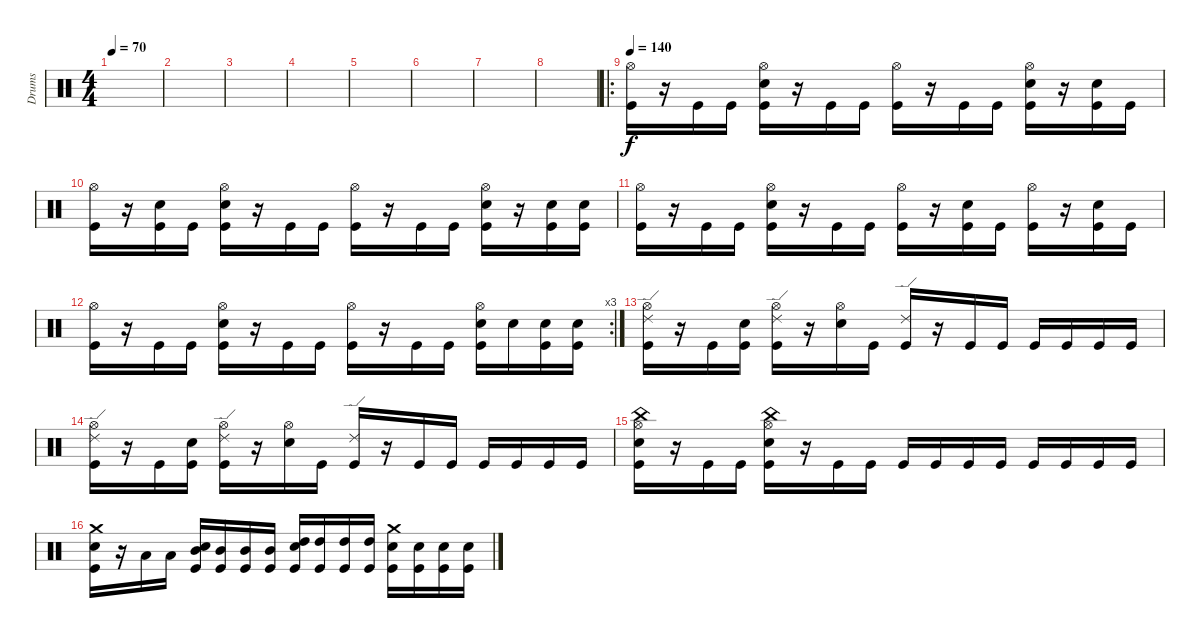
\track ("Drums" "Drums") {instrument percussion}
\staff {score}
\articulation defaults
\ts (4 4)
\tempo 70
\clef neutral
\ks c
|
|
|
|
|
|
|
|
\ro
\tempo 140
("Hi-Hat (open)" "Kick (hit)").16 r.16 "Kick (hit)".16 "Kick (hit)".16 ("Hi-Hat (open)" "Electric Snare (hit)" "Kick (hit)").16 r.16 "Kick (hit)".16 "Kick (hit)".16 ("Hi-Hat (open)" "Kick (hit)").16 r.16 "Kick (hit)".16 "Kick (hit)".16 ("Hi-Hat (open)" "Electric Snare (hit)" "Kick (hit)").16 r.16 ("Electric Snare (hit)" "Kick (hit)").16 "Kick (hit)".16 |
("Hi-Hat (open)" "Kick (hit)").16 r.16 ("Electric Snare (hit)" "Kick (hit)").16 "Kick (hit)".16 ("Hi-Hat (open)" "Electric Snare (hit)" "Kick (hit)").16 r.16 "Kick (hit)".16 "Kick (hit)".16 ("Hi-Hat (open)" "Kick (hit)").16 r.16 "Kick (hit)".16 "Kick (hit)".16 ("Hi-Hat (open)" "Electric Snare (hit)" "Kick (hit)").16 r.16 ("Electric Snare (hit)" "Kick (hit)").16 ("Electric Snare (hit)" "Kick (hit)").16 |
("Hi-Hat (open)" "Kick (hit)").16 r.16 "Kick (hit)".16 "Kick (hit)".16 ("Hi-Hat (open)" "Electric Snare (hit)" "Kick (hit)").16 r.16 "Kick (hit)".16 "Kick (hit)".16 ("Hi-Hat (open)" "Kick (hit)").16 r.16 ("Electric Snare (hit)" "Kick (hit)").16 "Kick (hit)".16 ("Hi-Hat (open)" "Kick (hit)").16 r.16 ("Electric Snare (hit)" "Kick (hit)").16 "Kick (hit)".16 |
\rc 3
("Hi-Hat (open)" "Kick (hit)").16 r.16 "Kick (hit)".16 "Kick (hit)".16 ("Hi-Hat (open)" "Electric Snare (hit)" "Kick (hit)").16 r.16 "Kick (hit)".16 "Kick (hit)".16 ("Hi-Hat (open)" "Kick (hit)").16 r.16 "Kick (hit)".16 "Kick (hit)".16 ("Hi-Hat (open)" "Electric Snare (hit)" "Kick (hit)").16 "Electric Snare (hit)".16 ("Electric Snare (hit)" "Kick (hit)").16 ("Electric Snare (hit)" "Kick (hit)").16 |
("Ride (edge) 2" "Hi-Hat (open)" "Kick (hit)").16 r.16 "Kick (hit)".16 ("Electric Snare (hit)" "Kick (hit)").16 ("Ride (edge) 2" "Hi-Hat (open)" "Kick (hit)").16 r.16 ("Hi-Hat (open)" "Electric Snare (hit)").16 "Kick (hit)".16 ("Ride (edge) 2" "Kick (hit)").16 r.16 "Kick (hit)".16 "Kick (hit)".16 "Kick (hit)".16 "Kick (hit)".16 "Kick (hit)".16 "Kick (hit)".16 |
("Ride (edge) 2" "Hi-Hat (open)" "Kick (hit)").16 r.16 "Kick (hit)".16 ("Electric Snare (hit)" "Kick (hit)").16 ("Ride (edge) 2" "Hi-Hat (open)" "Kick (hit)").16 r.16 ("Hi-Hat (open)" "Electric Snare (hit)").16 "Kick (hit)".16 ("Ride (edge) 2" "Kick (hit)").16 r.16 "Kick (hit)".16 "Kick (hit)".16 "Kick (hit)".16 "Kick (hit)".16 "Kick (hit)".16 "Kick (hit)".16 |
("China (hit)" "Hi-Hat (open)" "Electric Snare (hit)" "Kick (hit)").16 r.16 "Kick (hit)".16 "Kick (hit)".16 ("China (hit)" "Hi-Hat (open)" "Electric Snare (hit)" "Kick (hit)").16 r.16 "Kick (hit)".16 "Kick (hit)".16 "Kick (hit)".16 "Kick (hit)".16 "Kick (hit)".16 "Kick (hit)".16 "Kick (hit)".16 "Kick (hit)".16 "Kick (hit)".16 "Kick (hit)".16 |
("Crash medium (hit)" "Electric Snare (hit)" "Kick (hit)").16 r.16 "Low Tom (hit)".16 "Low Tom (hit)".16 ("Electric Snare (hit)" "Mid Tom (hit)" "Kick (hit)").16 ("Mid Tom (hit)" "Kick (hit)").16 ("Mid Tom (hit)" "Kick (hit)").16 ("Mid Tom (hit)" "Kick (hit)").16 ("Electric Snare (hit)" "High Tom (hit)" "Kick (hit)").16 ("High Tom (hit)" "Kick (hit)").16 ("High Tom (hit)" "Kick (hit)").16 ("High Tom (hit)" "Kick (hit)").16 ("Crash medium (hit)" "Electric Snare (hit)" "Kick (hit)").16 ("Electric Snare (hit)" "Kick (hit)").16 ("Electric Snare (hit)" "Kick (hit)").16 ("Electric Snare (hit)" "Kick (hit)").16
